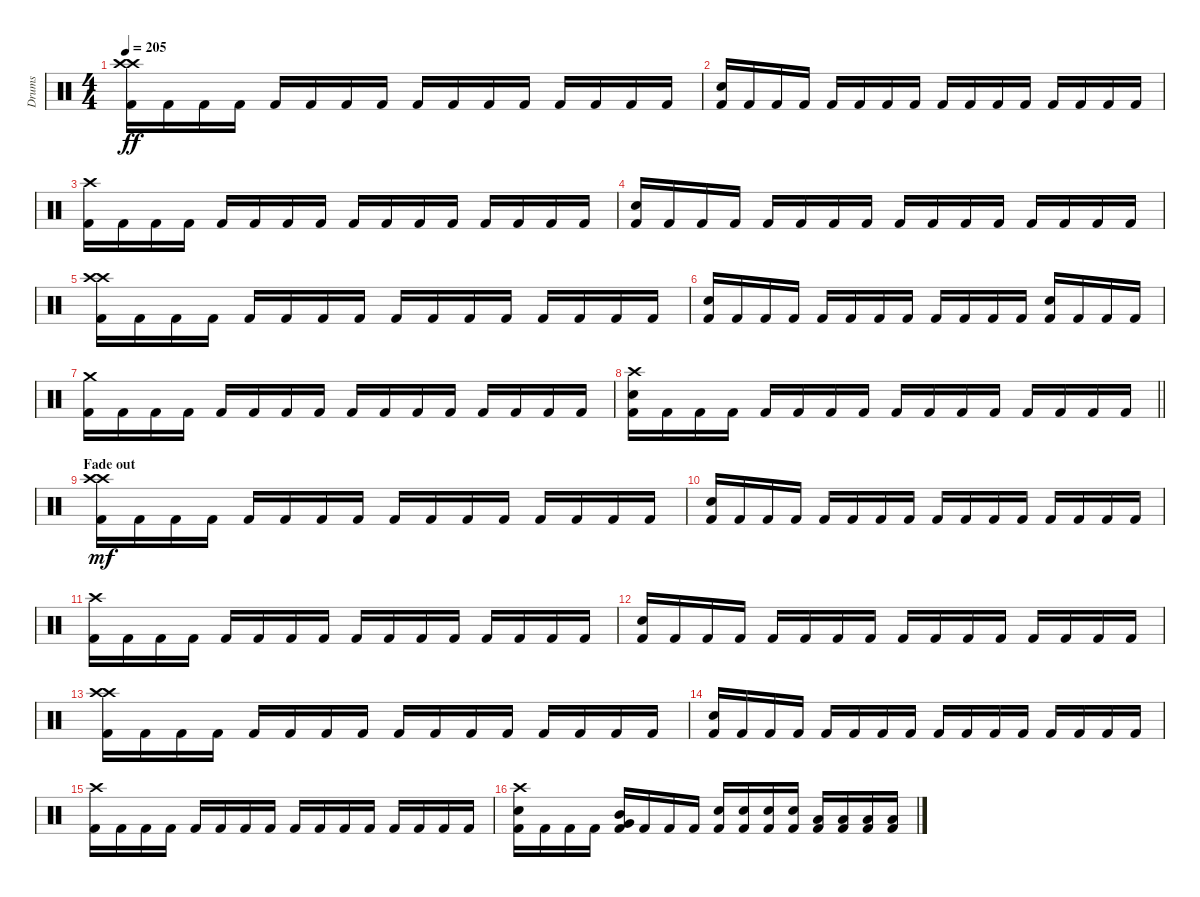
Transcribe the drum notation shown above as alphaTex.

\track ("Drums" "Drums") {instrument percussion}
\staff {score}
\articulation defaults
\ts (4 4)
\tempo 205
\clef neutral
\ks c
("Crash high (hit)" "Crash high (hit)" "Kick (hit) 2").16{dy ff} "Kick (hit) 2".16 "Kick (hit) 2".16 "Kick (hit) 2".16 "Kick (hit) 2".16 "Kick (hit) 2".16 "Kick (hit) 2".16 "Kick (hit) 2".16 "Kick (hit) 2".16 "Kick (hit) 2".16 "Kick (hit) 2".16 "Kick (hit) 2".16 "Kick (hit) 2".16 "Kick (hit) 2".16 "Kick (hit) 2".16 "Kick (hit) 2".16 |
("Kick (hit) 2" "Snare (hit) 2").16 "Kick (hit) 2".16 "Kick (hit) 2".16 "Kick (hit) 2".16 "Kick (hit) 2".16 "Kick (hit) 2".16 "Kick (hit) 2".16 "Kick (hit) 2".16 "Kick (hit) 2".16 "Kick (hit) 2".16 "Kick (hit) 2".16 "Kick (hit) 2".16 "Kick (hit) 2".16 "Kick (hit) 2".16 "Kick (hit) 2".16 "Kick (hit) 2".16 |
("Kick (hit) 2" "Crash high (hit)").16 "Kick (hit) 2".16 "Kick (hit) 2".16 "Kick (hit) 2".16 "Kick (hit) 2".16 "Kick (hit) 2".16 "Kick (hit) 2".16 "Kick (hit) 2".16 "Kick (hit) 2".16 "Kick (hit) 2".16 "Kick (hit) 2".16 "Kick (hit) 2".16 "Kick (hit) 2".16 "Kick (hit) 2".16 "Kick (hit) 2".16 "Kick (hit) 2".16 |
("Kick (hit) 2" "Snare (hit) 2").16 "Kick (hit) 2".16 "Kick (hit) 2".16 "Kick (hit) 2".16 "Kick (hit) 2".16 "Kick (hit) 2".16 "Kick (hit) 2".16 "Kick (hit) 2".16 "Kick (hit) 2".16 "Kick (hit) 2".16 "Kick (hit) 2".16 "Kick (hit) 2".16 "Kick (hit) 2".16 "Kick (hit) 2".16 "Kick (hit) 2".16 "Kick (hit) 2".16 |
("Crash high (hit)" "Crash high (hit)" "Kick (hit) 2").16 "Kick (hit) 2".16 "Kick (hit) 2".16 "Kick (hit) 2".16 "Kick (hit) 2".16 "Kick (hit) 2".16 "Kick (hit) 2".16 "Kick (hit) 2".16 "Kick (hit) 2".16 "Kick (hit) 2".16 "Kick (hit) 2".16 "Kick (hit) 2".16 "Kick (hit) 2".16 "Kick (hit) 2".16 "Kick (hit) 2".16 "Kick (hit) 2".16 |
("Kick (hit) 2" "Snare (hit) 2").16 "Kick (hit) 2".16 "Kick (hit) 2".16 "Kick (hit) 2".16 "Kick (hit) 2".16 "Kick (hit) 2".16 "Kick (hit) 2".16 "Kick (hit) 2".16 "Kick (hit) 2".16 "Kick (hit) 2".16 "Kick (hit) 2".16 "Kick (hit) 2".16 ("Kick (hit) 2" "Snare (hit) 2").16 "Kick (hit) 2".16 "Kick (hit) 2".16 "Kick (hit) 2".16 |
("Crash medium (hit)" "Kick (hit) 2").16 "Kick (hit) 2".16 "Kick (hit) 2".16 "Kick (hit) 2".16 "Kick (hit) 2".16 "Kick (hit) 2".16 "Kick (hit) 2".16 "Kick (hit) 2".16 "Kick (hit) 2".16 "Kick (hit) 2".16 "Kick (hit) 2".16 "Kick (hit) 2".16 "Kick (hit) 2".16 "Kick (hit) 2".16 "Kick (hit) 2".16 "Kick (hit) 2".16 |
\barLineRight lightlight
("Crash high (hit)" "Kick (hit) 2" "Snare (hit) 2").16 "Kick (hit) 2".16 "Kick (hit) 2".16 "Kick (hit) 2".16 "Kick (hit) 2".16 "Kick (hit) 2".16 "Kick (hit) 2".16 "Kick (hit) 2".16 "Kick (hit) 2".16 "Kick (hit) 2".16 "Kick (hit) 2".16 "Kick (hit) 2".16 "Kick (hit) 2".16 "Kick (hit) 2".16 "Kick (hit) 2".16 "Kick (hit) 2".16 |
\section ("" "Fade out")
("Crash high (hit)" "Crash high (hit)" "Kick (hit) 2").16{dy mf} "Kick (hit) 2".16 "Kick (hit) 2".16 "Kick (hit) 2".16 "Kick (hit) 2".16 "Kick (hit) 2".16 "Kick (hit) 2".16 "Kick (hit) 2".16 "Kick (hit) 2".16 "Kick (hit) 2".16 "Kick (hit) 2".16 "Kick (hit) 2".16 "Kick (hit) 2".16 "Kick (hit) 2".16 "Kick (hit) 2".16 "Kick (hit) 2".16 |
("Kick (hit) 2" "Snare (hit) 2").16 "Kick (hit) 2".16 "Kick (hit) 2".16 "Kick (hit) 2".16 "Kick (hit) 2".16 "Kick (hit) 2".16 "Kick (hit) 2".16 "Kick (hit) 2".16 "Kick (hit) 2".16 "Kick (hit) 2".16 "Kick (hit) 2".16 "Kick (hit) 2".16 "Kick (hit) 2".16 "Kick (hit) 2".16 "Kick (hit) 2".16 "Kick (hit) 2".16 |
("Kick (hit) 2" "Crash high (hit)").16 "Kick (hit) 2".16 "Kick (hit) 2".16 "Kick (hit) 2".16 "Kick (hit) 2".16 "Kick (hit) 2".16 "Kick (hit) 2".16 "Kick (hit) 2".16 "Kick (hit) 2".16 "Kick (hit) 2".16 "Kick (hit) 2".16 "Kick (hit) 2".16 "Kick (hit) 2".16 "Kick (hit) 2".16 "Kick (hit) 2".16 "Kick (hit) 2".16 |
("Kick (hit) 2" "Snare (hit) 2").16 "Kick (hit) 2".16 "Kick (hit) 2".16 "Kick (hit) 2".16 "Kick (hit) 2".16 "Kick (hit) 2".16 "Kick (hit) 2".16 "Kick (hit) 2".16 "Kick (hit) 2".16 "Kick (hit) 2".16 "Kick (hit) 2".16 "Kick (hit) 2".16 "Kick (hit) 2".16 "Kick (hit) 2".16 "Kick (hit) 2".16 "Kick (hit) 2".16 |
("Crash high (hit)" "Crash high (hit)" "Kick (hit) 2").16 "Kick (hit) 2".16 "Kick (hit) 2".16 "Kick (hit) 2".16 "Kick (hit) 2".16 "Kick (hit) 2".16 "Kick (hit) 2".16 "Kick (hit) 2".16 "Kick (hit) 2".16 "Kick (hit) 2".16 "Kick (hit) 2".16 "Kick (hit) 2".16 "Kick (hit) 2".16 "Kick (hit) 2".16 "Kick (hit) 2".16 "Kick (hit) 2".16 |
("Kick (hit) 2" "Snare (hit) 2").16 "Kick (hit) 2".16 "Kick (hit) 2".16 "Kick (hit) 2".16 "Kick (hit) 2".16 "Kick (hit) 2".16 "Kick (hit) 2".16 "Kick (hit) 2".16 "Kick (hit) 2".16 "Kick (hit) 2".16 "Kick (hit) 2".16 "Kick (hit) 2".16 "Kick (hit) 2".16 "Kick (hit) 2".16 "Kick (hit) 2".16 "Kick (hit) 2".16 |
("Kick (hit) 2" "Crash high (hit)").16 "Kick (hit) 2".16 "Kick (hit) 2".16 "Kick (hit) 2".16 "Kick (hit) 2".16 "Kick (hit) 2".16 "Kick (hit) 2".16 "Kick (hit) 2".16 "Kick (hit) 2".16 "Kick (hit) 2".16 "Kick (hit) 2".16 "Kick (hit) 2".16 "Kick (hit) 2".16 "Kick (hit) 2".16 "Kick (hit) 2".16 "Kick (hit) 2".16 |
("Crash high (hit)" "Kick (hit) 2" "Snare (hit) 2").16 "Kick (hit) 2".16 "Kick (hit) 2".16 "Kick (hit) 2".16 ("Kick (hit) 2" "Mid Tom (hit)" "Very Low Tom (hit)").16 "Kick (hit) 2".16 "Kick (hit) 2".16 "Kick (hit) 2".16 ("Kick (hit) 2" "Snare (hit) 2").16 ("Kick (hit) 2" "Snare (hit) 2").16 ("Kick (hit) 2" "Snare (hit) 2").16 ("Kick (hit) 2" "Snare (hit) 2").16 ("Kick (hit) 2" "Low Tom (hit)").16 ("Kick (hit) 2" "Low Tom (hit)").16 ("Kick (hit) 2" "Low Tom (hit)").16 ("Kick (hit) 2" "Low Tom (hit)").16
